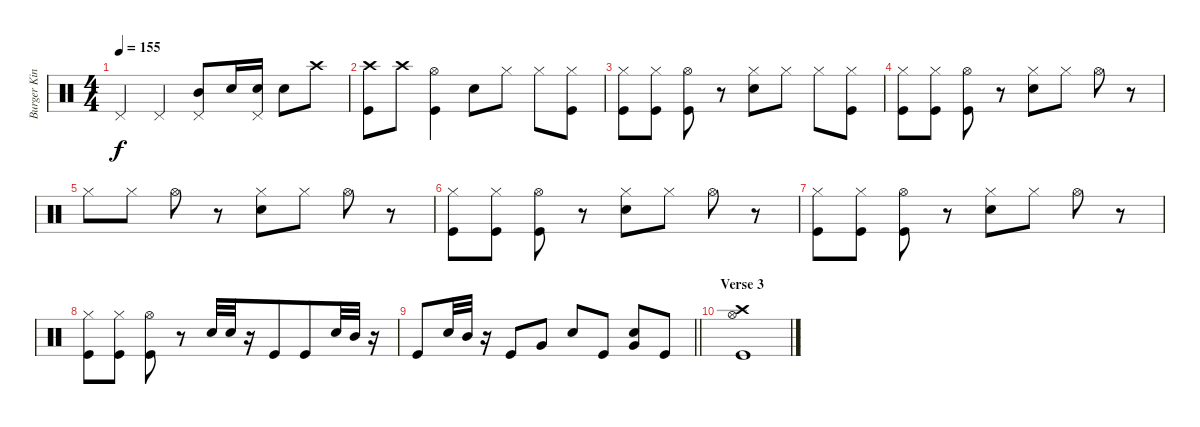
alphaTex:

\track ("Burger King" "Burger Kin") {instrument percussion}
\staff {score}
\articulation defaults
\ts (4 4)
\tempo 155
\clef neutral
\ks c "Pedal Hi-Hat (hit)".4{dy f} "Pedal Hi-Hat (hit)".4
("Mid Tom (hit)" "Pedal Hi-Hat (hit)").8 "Snare (hit) 2".16 ("Snare (hit) 2" "Pedal Hi-Hat (hit)").16 "Snare (hit) 2".8 "Crash high (hit)".8 |
("Crash high (hit)" "Kick (hit)").8 "Crash high (hit)".8 ("Kick (hit)" "Hi-Hat (open)").4 "Snare (hit) 2".8 "Hi-Hat (closed)".8 "Hi-Hat (closed)".8 ("Kick (hit)" "Hi-Hat (closed)").8 |
("Hi-Hat (closed)" "Kick (hit)").8 ("Hi-Hat (closed)" "Kick (hit)").8 ("Hi-Hat (open)" "Kick (hit)").8 r.8 ("Hi-Hat (closed)" "Snare (hit) 2").8 "Hi-Hat (closed)".8 "Hi-Hat (closed)".8 ("Hi-Hat (closed)" "Kick (hit)").8 |
("Kick (hit)" "Hi-Hat (closed)").8 ("Hi-Hat (closed)" "Kick (hit)").8 ("Hi-Hat (open)" "Kick (hit)").8 r.8 ("Hi-Hat (closed)" "Snare (hit) 2").8 "Hi-Hat (closed)".8 "Hi-Hat (open)".8 r.8 |
"Hi-Hat (closed)".8 "Hi-Hat (closed)".8 "Hi-Hat (open)".8 r.8 ("Hi-Hat (closed)" "Snare (hit) 2").8 "Hi-Hat (closed)".8 "Hi-Hat (open)".8 r.8 |
("Kick (hit)" "Hi-Hat (closed)").8 ("Hi-Hat (closed)" "Kick (hit)").8 ("Hi-Hat (open)" "Kick (hit)").8 r.8 ("Hi-Hat (closed)" "Snare (hit) 2").8 "Hi-Hat (closed)".8 "Hi-Hat (open)".8 r.8 |
("Kick (hit)" "Hi-Hat (closed)").8 ("Hi-Hat (closed)" "Kick (hit)").8 ("Hi-Hat (open)" "Kick (hit)").8 r.8 ("Hi-Hat (closed)" "Snare (hit) 2").8 "Hi-Hat (closed)".8 "Hi-Hat (open)".8 r.8 |
("Kick (hit)" "Hi-Hat (closed)").8 ("Hi-Hat (closed)" "Kick (hit)").8 ("Hi-Hat (open)" "Kick (hit)").8 r.8 "Snare (hit) 2".32 "Snare (hit) 2".32 r.16 "Kick (hit)".8{beam merge} "Kick (hit)".8 "Snare (hit) 2".32 "Mid Tom (hit)".32 r.16 |
\barLineRight lightlight "Kick (hit)".8 "Snare (hit) 2".32 "Mid Tom (hit)".32
r.16 "Kick (hit)".8 "Very Low Tom (hit)".8 "Snare (hit) 2".8 "Kick (hit)".8 ("Very Low Tom (hit)" "Snare (hit) 2").8 "Kick (hit)".8 |
\section ("" "Verse 3")
("Crash high (hit)" "Hi-Hat (open)" "Kick (hit)").1
